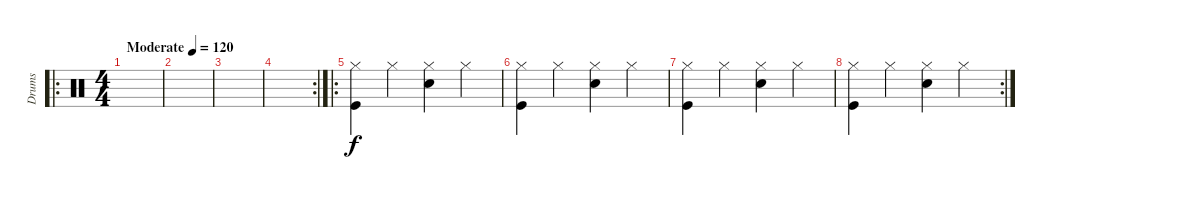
\track ("Drums" "Drums") {instrument percussion}
\staff {score}
\articulation defaults
\ro
\ts (4 4)
\tempo (120 "Moderate")
\clef neutral
\ks c
|
|
|
\rc 2
|
\ro
("Hi-Hat (closed)" "Kick (hit)").4 "Hi-Hat (closed)".4 ("Hi-Hat (closed)" "Snare (hit) 2").4 "Hi-Hat (closed)".4 |
("Hi-Hat (closed)" "Kick (hit)").4 "Hi-Hat (closed)".4 ("Hi-Hat (closed)" "Snare (hit) 2").4 "Hi-Hat (closed)".4 |
("Hi-Hat (closed)" "Kick (hit)").4 "Hi-Hat (closed)".4 ("Hi-Hat (closed)" "Snare (hit) 2").4 "Hi-Hat (closed)".4 |
\rc 2
("Hi-Hat (closed)" "Kick (hit)").4 "Hi-Hat (closed)".4 ("Hi-Hat (closed)" "Snare (hit) 2").4 "Hi-Hat (closed)".4
